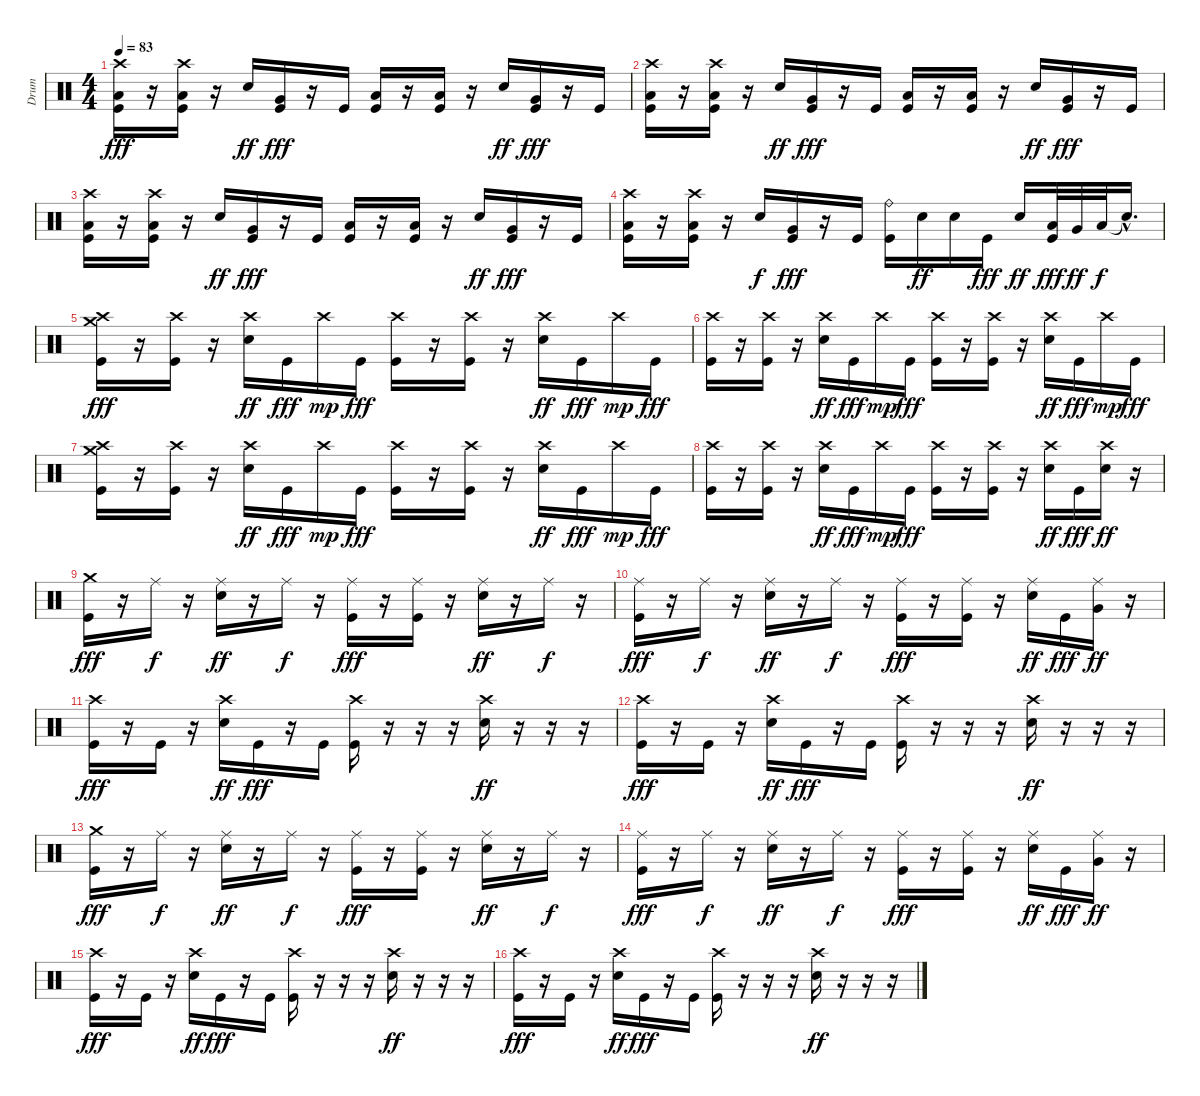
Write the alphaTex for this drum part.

\track ("Drum" "Drum") {instrument percussion}
\staff {score}
\articulation defaults
\ts (4 4)
\tempo 83
\clef neutral
\ks c
("Crash high (hit)" "Low Floor Tom (hit)" "Kick (hit)").16{dy fff volume 13} r.16 ("Crash high (hit)" "Low Floor Tom (hit)" "Kick (hit)").16 r.16 "Snare (hit) 2".16{dy ff} ("Very Low Tom (hit)" "Kick (hit)").16{dy fff} r.16 "Kick (hit)".16 ("Low Floor Tom (hit)" "Kick (hit)").16 r.16 ("Low Floor Tom (hit)" "Kick (hit)").16 r.16 "Snare (hit) 2".16{dy ff} ("Very Low Tom (hit)" "Kick (hit)").16{dy fff} r.16 "Kick (hit)".16 |
("Crash high (hit)" "Low Floor Tom (hit)" "Kick (hit)").16 r.16 ("Crash high (hit)" "Low Floor Tom (hit)" "Kick (hit)").16 r.16 "Snare (hit) 2".16{dy ff} ("Very Low Tom (hit)" "Kick (hit)").16{dy fff} r.16 "Kick (hit)".16 ("Low Floor Tom (hit)" "Kick (hit)").16 r.16 ("Low Floor Tom (hit)" "Kick (hit)").16 r.16 "Snare (hit) 2".16{dy ff} ("Very Low Tom (hit)" "Kick (hit)").16{dy fff} r.16 "Kick (hit)".16 |
("Crash high (hit)" "Low Floor Tom (hit)" "Kick (hit)").16 r.16 ("Crash high (hit)" "Low Floor Tom (hit)" "Kick (hit)").16 r.16 "Snare (hit) 2".16{dy ff} ("Very Low Tom (hit)" "Kick (hit)").16{dy fff} r.16 "Kick (hit)".16 ("Low Floor Tom (hit)" "Kick (hit)").16 r.16 ("Low Floor Tom (hit)" "Kick (hit)").16 r.16 "Snare (hit) 2".16{dy ff} ("Very Low Tom (hit)" "Kick (hit)").16{dy fff} r.16 "Kick (hit)".16 |
("Crash high (hit)" "Low Floor Tom (hit)" "Kick (hit)").16 r.16 ("Crash high (hit)" "Low Floor Tom (hit)" "Kick (hit)").16 r.16 "Snare (hit) 2".16{dy f} ("Very Low Tom (hit)" "Kick (hit)").16{dy fff} r.16 "Kick (hit)".16 ("Ride (bell)" "Kick (hit)").16 "Snare (hit) 2".16{dy ff} "Snare (hit) 2".16 "Kick (hit)".16{dy fff} "Snare (hit) 2".16{dy ff} ("Low Tom (hit)" "Kick (hit)").32{dy fff} "Very Low Tom (hit)".32{dy ff} "Low Floor Tom (hit)".32{dy f} "Snare (hit)"{hac t}.16{d} |
("Crash medium (hit)" "Crash high (hit)" "Kick (hit)").16{dy fff} r.16 ("Crash high (hit)" "Kick (hit)").16 r.16 ("Crash high (hit)" "Snare (hit) 2").16{dy ff} "Kick (hit)".16{dy fff} "Crash high (hit)".16{dy mp} "Kick (hit)".16{dy fff} ("Crash high (hit)" "Kick (hit)").16 r.16 ("Crash high (hit)" "Kick (hit)").16 r.16 ("Crash high (hit)" "Snare (hit) 2").16{dy ff} "Kick (hit)".16{dy fff} "Crash high (hit)".16{dy mp} "Kick (hit)".16{dy fff} |
("Crash high (hit)" "Kick (hit)").16 r.16 ("Crash high (hit)" "Kick (hit)").16 r.16 ("Crash high (hit)" "Snare (hit) 2").16{dy ff} "Kick (hit)".16{dy fff} "Crash high (hit)".16{dy mp} "Kick (hit)".16{dy fff} ("Crash high (hit)" "Kick (hit)").16 r.16 ("Crash high (hit)" "Kick (hit)").16 r.16 ("Crash high (hit)" "Snare (hit) 2").16{dy ff} "Kick (hit)".16{dy fff} "Crash high (hit)".16{dy mp} "Kick (hit)".16{dy fff} |
("Crash medium (hit)" "Crash high (hit)" "Kick (hit)").16 r.16 ("Crash high (hit)" "Kick (hit)").16 r.16 ("Crash high (hit)" "Snare (hit) 2").16{dy ff} "Kick (hit)".16{dy fff} "Crash high (hit)".16{dy mp} "Kick (hit)".16{dy fff} ("Crash high (hit)" "Kick (hit)").16 r.16 ("Crash high (hit)" "Kick (hit)").16 r.16 ("Crash high (hit)" "Snare (hit) 2").16{dy ff} "Kick (hit)".16{dy fff} "Crash high (hit)".16{dy mp} "Kick (hit)".16{dy fff} |
("Crash high (hit)" "Kick (hit)").16 r.16 ("Crash high (hit)" "Kick (hit)").16 r.16 ("Crash high (hit)" "Snare (hit) 2").16{dy ff} "Kick (hit)".16{dy fff} "Crash high (hit)".16{dy mp} "Kick (hit)".16{dy fff} ("Crash high (hit)" "Kick (hit)").16 r.16 ("Crash high (hit)" "Kick (hit)").16 r.16 ("Crash high (hit)" "Snare (hit) 2").16{dy ff} "Kick (hit)".16{dy fff volume 16} ("Crash high (hit)" "Snare (hit) 2").16{dy ff volume 13} r.16 |
("Crash medium (hit)" "Kick (hit)").16{dy fff} r.16 "Ride (middle)".16{dy f} r.16 ("Ride (middle)" "Snare (hit) 2").16{dy ff} r.16 "Ride (middle)".16{dy f} r.16 ("Ride (middle)" "Kick (hit)").16{dy fff} r.16 ("Ride (middle)" "Kick (hit)").16 r.16 ("Ride (middle)" "Snare (hit) 2").16{dy ff} r.16 "Ride (middle)".16{dy f} r.16 |
("Ride (middle)" "Kick (hit)").16{dy fff} r.16 "Ride (middle)".16{dy f} r.16 ("Ride (middle)" "Snare (hit) 2").16{dy ff} r.16 "Ride (middle)".16{dy f} r.16 ("Ride (middle)" "Kick (hit)").16{dy fff} r.16 ("Ride (middle)" "Kick (hit)").16 r.16 ("Ride (middle)" "Snare (hit) 2").16{dy ff} "Kick (hit)".16{dy fff} ("Ride (middle)" "Very Low Tom (hit)").16{dy ff} r.16 |
("Crash high (hit)" "Kick (hit)").16{dy fff} r.16 "Kick (hit)".16 r.16 ("Crash high (hit)" "Snare (hit) 2").16{dy ff} "Kick (hit)".16{dy fff} r.16 "Kick (hit)".16 ("Crash high (hit)" "Kick (hit)").16 r.16 r.16 r.16 ("Crash high (hit)" "Snare (hit) 2").16{dy ff} r.16 r.16 r.16 |
("Crash high (hit)" "Kick (hit)").16{dy fff} r.16 "Kick (hit)".16 r.16 ("Crash high (hit)" "Snare (hit) 2").16{dy ff} "Kick (hit)".16{dy fff} r.16 "Kick (hit)".16 ("Crash high (hit)" "Kick (hit)").16 r.16 r.16 r.16 ("Crash high (hit)" "Snare (hit) 2").16{dy ff} r.16 r.16 r.16 |
("Crash medium (hit)" "Kick (hit)").16{dy fff} r.16 "Ride (middle)".16{dy f} r.16 ("Ride (middle)" "Snare (hit) 2").16{dy ff} r.16 "Ride (middle)".16{dy f} r.16 ("Ride (middle)" "Kick (hit)").16{dy fff} r.16 ("Ride (middle)" "Kick (hit)").16 r.16 ("Ride (middle)" "Snare (hit) 2").16{dy ff} r.16 "Ride (middle)".16{dy f} r.16 |
("Ride (middle)" "Kick (hit)").16{dy fff} r.16 "Ride (middle)".16{dy f} r.16 ("Ride (middle)" "Snare (hit) 2").16{dy ff} r.16 "Ride (middle)".16{dy f} r.16 ("Ride (middle)" "Kick (hit)").16{dy fff} r.16 ("Ride (middle)" "Kick (hit)").16 r.16 ("Ride (middle)" "Snare (hit) 2").16{dy ff} "Kick (hit)".16{dy fff} ("Ride (middle)" "Very Low Tom (hit)").16{dy ff} r.16 |
("Crash high (hit)" "Kick (hit)").16{dy fff} r.16 "Kick (hit)".16 r.16 ("Crash high (hit)" "Snare (hit) 2").16{dy ff} "Kick (hit)".16{dy fff} r.16 "Kick (hit)".16 ("Crash high (hit)" "Kick (hit)").16 r.16 r.16 r.16 ("Crash high (hit)" "Snare (hit) 2").16{dy ff} r.16 r.16 r.16 |
("Crash high (hit)" "Kick (hit)").16{dy fff} r.16 "Kick (hit)".16 r.16 ("Crash high (hit)" "Snare (hit) 2").16{dy ff} "Kick (hit)".16{dy fff} r.16 "Kick (hit)".16 ("Crash high (hit)" "Kick (hit)").16 r.16 r.16 r.16 ("Crash high (hit)" "Snare (hit) 2").16{dy ff} r.16 r.16 r.16
